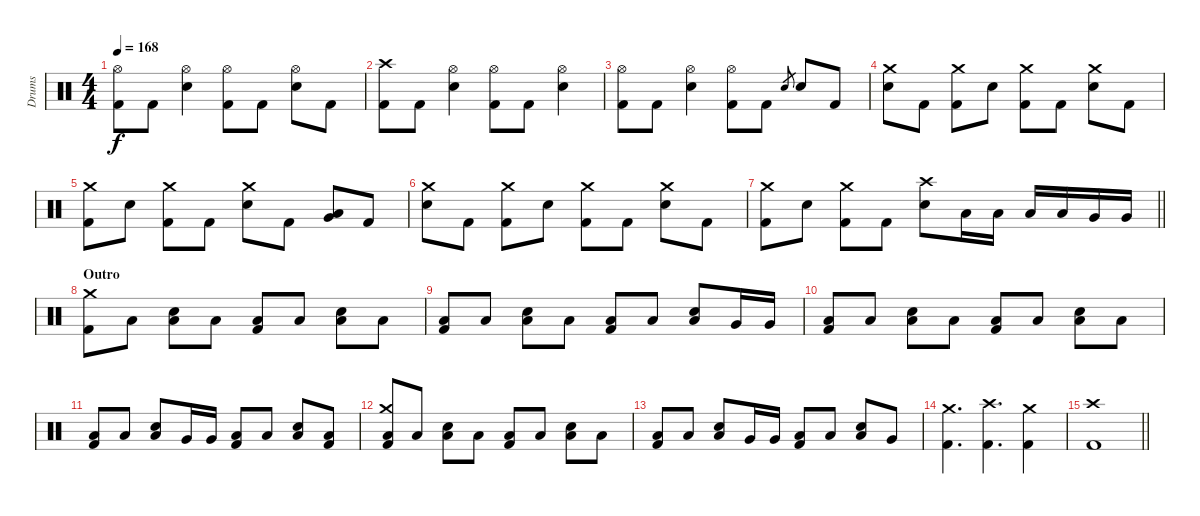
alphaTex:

\track ("Drums" "Drums") {instrument percussion}
\staff {score}
\articulation defaults
\ts (4 4)
\tempo 168
\clef neutral
\ks c
("Hi-Hat (open)" "Kick (hit) 2").8{dy f} "Kick (hit) 2".8 ("Hi-Hat (open)" "Electric Snare (hit)").4 ("Hi-Hat (open)" "Kick (hit) 2").8 "Kick (hit) 2".8 ("Hi-Hat (open)" "Electric Snare (hit)").8 "Kick (hit) 2".8 |
("Crash high (hit)" "Kick (hit) 2").8 "Kick (hit) 2".8 ("Hi-Hat (open)" "Electric Snare (hit)").4 ("Hi-Hat (open)" "Kick (hit) 2").8 "Kick (hit) 2".8 ("Hi-Hat (open)" "Electric Snare (hit)").4 |
("Hi-Hat (open)" "Kick (hit) 2").8 "Kick (hit) 2".8 ("Hi-Hat (open)" "Electric Snare (hit)").4 ("Hi-Hat (open)" "Kick (hit) 2").8 "Kick (hit) 2".8 "Electric Snare (hit)".8{gr} "Electric Snare (hit)".8 "Kick (hit) 2".8 |
("Crash medium (hit)" "Electric Snare (hit)").8 "Kick (hit) 2".8 ("Crash medium (hit)" "Kick (hit) 2").8 "Electric Snare (hit)".8 ("Crash medium (hit)" "Kick (hit) 2").8 "Kick (hit) 2".8 ("Crash medium (hit)" "Electric Snare (hit)").8 "Kick (hit) 2".8 |
("Crash medium (hit)" "Kick (hit) 2").8 "Electric Snare (hit)".8 ("Crash medium (hit)" "Kick (hit) 2").8 "Kick (hit) 2".8 ("Crash medium (hit)" "Electric Snare (hit)").8 "Kick (hit) 2".8 ("Low Floor Tom (hit)" "Very Low Tom (hit)").8 "Kick (hit) 2".8 |
("Crash medium (hit)" "Electric Snare (hit)").8 "Kick (hit) 2".8 ("Crash medium (hit)" "Kick (hit) 2").8 "Electric Snare (hit)".8 ("Crash medium (hit)" "Kick (hit) 2").8 "Kick (hit) 2".8 ("Crash medium (hit)" "Electric Snare (hit)").8 "Kick (hit) 2".8 |
\barLineRight lightlight
("Crash medium (hit)" "Kick (hit) 2").8 "Electric Snare (hit)".8 ("Crash medium (hit)" "Kick (hit) 2").8 "Kick (hit) 2".8 ("Crash high (hit)" "Electric Snare (hit)").8 "Low Tom (hit)".16 "Low Tom (hit)".16 "Low Tom (hit)".16 "Low Tom (hit)".16 "Very Low Tom (hit)".16 "Very Low Tom (hit)".16 |
\section ("" "Outro")
("Crash medium (hit)" "Kick (hit) 2").8 "Low Floor Tom (hit)".8 ("Low Floor Tom (hit)" "Electric Snare (hit)").8 "Low Floor Tom (hit)".8 ("Low Floor Tom (hit)" "Kick (hit) 2").8 "Low Floor Tom (hit)".8 ("Low Floor Tom (hit)" "Electric Snare (hit)").8 "Low Floor Tom (hit)".8 |
("Low Floor Tom (hit)" "Kick (hit) 2").8 "Low Floor Tom (hit)".8 ("Low Floor Tom (hit)" "Electric Snare (hit)").8 "Low Floor Tom (hit)".8 ("Low Floor Tom (hit)" "Kick (hit) 2").8 "Low Floor Tom (hit)".8 ("Low Floor Tom (hit)" "Electric Snare (hit)").8 "Very Low Tom (hit)".16 "Very Low Tom (hit)".16 |
("Low Floor Tom (hit)" "Kick (hit) 2").8 "Low Floor Tom (hit)".8 ("Low Floor Tom (hit)" "Electric Snare (hit)").8 "Low Floor Tom (hit)".8 ("Low Floor Tom (hit)" "Kick (hit) 2").8 "Low Floor Tom (hit)".8 ("Low Floor Tom (hit)" "Electric Snare (hit)").8 "Low Floor Tom (hit)".8 |
("Low Floor Tom (hit)" "Kick (hit) 2").8 "Low Floor Tom (hit)".8 ("Low Floor Tom (hit)" "Electric Snare (hit)").8 "Very Low Tom (hit)".16 "Very Low Tom (hit)".16 ("Low Floor Tom (hit)" "Kick (hit) 2").8 "Low Floor Tom (hit)".8 ("Low Floor Tom (hit)" "Electric Snare (hit)").8 ("Low Tom (hit)" "Kick (hit) 2").8 |
("Crash medium (hit)" "Low Floor Tom (hit)" "Kick (hit) 2").8 "Low Floor Tom (hit)".8 ("Low Floor Tom (hit)" "Electric Snare (hit)").8 "Low Floor Tom (hit)".8 ("Low Floor Tom (hit)" "Kick (hit) 2").8 "Low Floor Tom (hit)".8 ("Low Floor Tom (hit)" "Electric Snare (hit)").8 "Low Floor Tom (hit)".8 |
("Low Floor Tom (hit)" "Kick (hit) 2").8 "Low Floor Tom (hit)".8 ("Low Floor Tom (hit)" "Electric Snare (hit)").8 "Very Low Tom (hit)".16 "Very Low Tom (hit)".16 ("Low Floor Tom (hit)" "Kick (hit) 2").8 "Low Floor Tom (hit)".8 ("Low Tom (hit)" "Electric Snare (hit)").8 "Very Low Tom (hit)".8 |
("Crash medium (hit)" "Kick (hit) 2").4{d} ("Crash high (hit)" "Kick (hit) 2").4{d} ("Crash medium (hit)" "Kick (hit) 2").4 |
\barLineRight lightlight
("Crash high (hit)" "Kick (hit) 2").1
